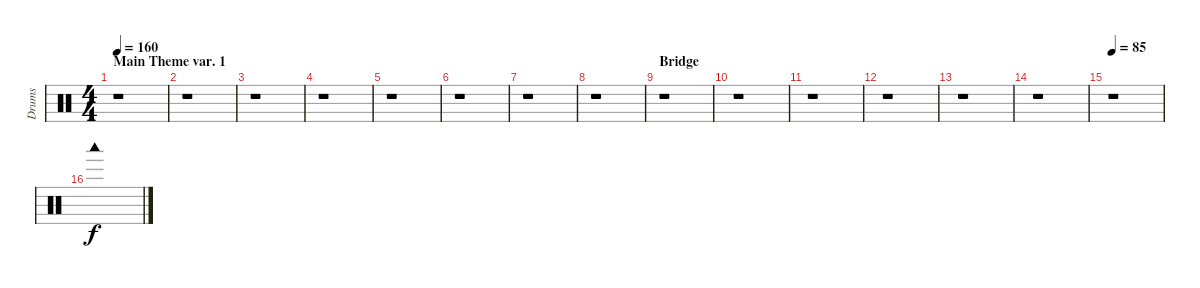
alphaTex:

\track ("Drums" "Drums") {instrument percussion}
\staff {score}
\articulation defaults
\ts (4 4)
\section ("" "Main Theme var. 1")
\tempo 160
\clef neutral
\ks c
r.1{dy fff} |
r.1 |
r.1 |
r.1 |
r.1 |
r.1 |
r.1 |
r.1 |
\section ("" "Bridge")
r.1 |
r.1 |
r.1 |
r.1 |
r.1 |
r.1 |
\tempo 85
r.1 |
"Woodblock low (hit)".1{dy f volume 16}
